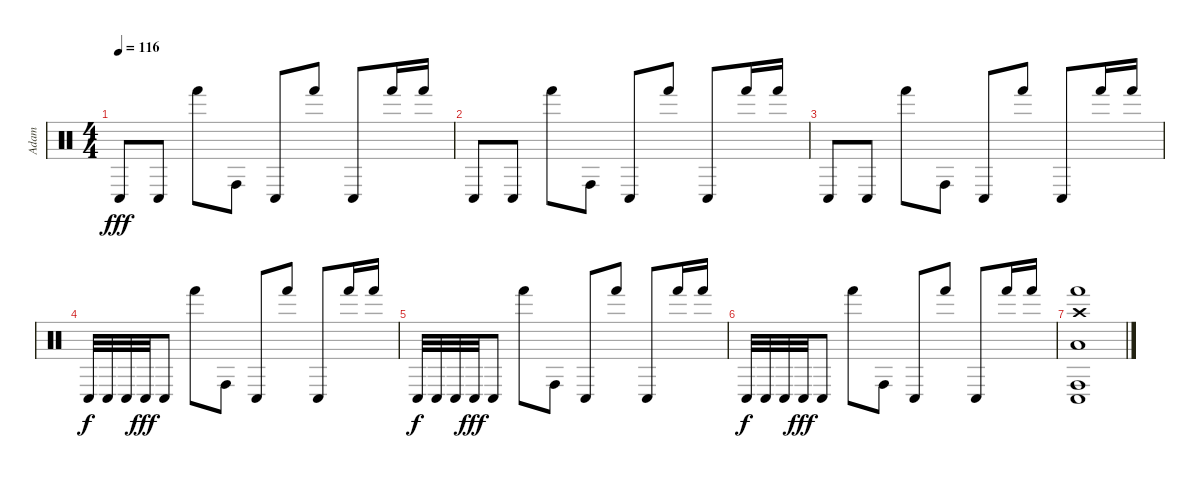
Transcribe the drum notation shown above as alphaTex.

\track ("Adam" "Adam") {instrument percussion}
\staff {score}
\articulation defaults
\ts (4 4)
\tempo 116
\clef neutral
\ks c "Conga low (hit)".8{dy fff} "Conga low (hit)".8 "Hand (hit)".8 "Conga high (hit)".8 "Conga low (hit)".8 "Hand (hit)".8 "Conga low (hit)".8 "Hand (hit)".16 "Hand (hit)".16
|
"Conga low (hit)".8 "Conga low (hit)".8 "Hand (hit)".8 "Conga high (hit)".8 "Conga low (hit)".8 "Hand (hit)".8 "Conga low (hit)".8 "Hand (hit)".16 "Hand (hit)".16 |
"Conga low (hit)".8 "Conga low (hit)".8 "Hand (hit)".8 "Conga high (hit)".8 "Conga low (hit)".8 "Hand (hit)".8 "Conga low (hit)".8 "Hand (hit)".16 "Hand (hit)".16 |
"Conga low (hit)".32{dy f} "Conga low (hit)".32 "Conga low (hit)".32 "Conga low (hit)".32{dy fff} "Conga low (hit)".8 "Hand (hit)".8 "Conga high (hit)".8 "Conga low (hit)".8 "Hand (hit)".8 "Conga low (hit)".8 "Hand (hit)".16 "Hand (hit)".16 |
"Conga low (hit)".32{dy f} "Conga low (hit)".32 "Conga low (hit)".32 "Conga low (hit)".32{dy fff} "Conga low (hit)".8 "Hand (hit)".8 "Conga high (hit)".8 "Conga low (hit)".8 "Hand (hit)".8 "Conga low (hit)".8 "Hand (hit)".16 "Hand (hit)".16 |
"Conga low (hit)".32{dy f} "Conga low (hit)".32 "Conga low (hit)".32 "Conga low (hit)".32{dy fff} "Conga low (hit)".8 "Hand (hit)".8 "Conga high (hit)".8 "Conga low (hit)".8 "Hand (hit)".8 "Conga low (hit)".8 "Hand (hit)".16 "Hand (hit)".16 |
("Crash high (hit)" "Conga high (hit)" "Hand (hit)" "Conga low (hit)" "Low Floor Tom (hit)").1
